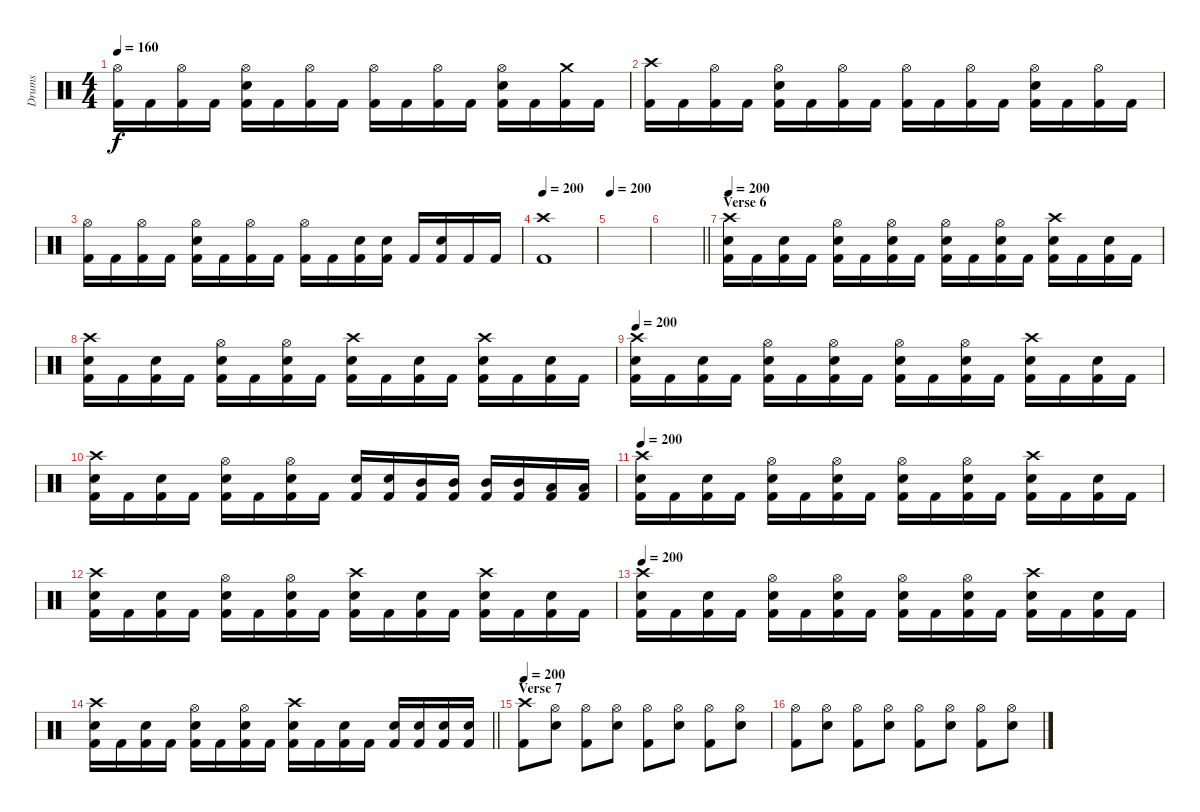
\track ("Drums" "Drums") {instrument percussion}
\staff {score}
\articulation defaults
\ts (4 4)
\tempo 160
\clef neutral
\ks c
("Hi-Hat (open)" "Kick (hit) 2").16{dy f} "Kick (hit) 2".16 ("Hi-Hat (open)" "Kick (hit) 2").16 "Kick (hit) 2".16 ("Hi-Hat (open)" "Electric Snare (hit)" "Kick (hit) 2").16 "Kick (hit) 2".16 ("Hi-Hat (open)" "Kick (hit) 2").16 "Kick (hit) 2".16 ("Hi-Hat (open)" "Kick (hit) 2").16 "Kick (hit) 2".16 ("Hi-Hat (open)" "Kick (hit) 2").16 "Kick (hit) 2".16 ("Hi-Hat (open)" "Electric Snare (hit)" "Kick (hit) 2").16 "Kick (hit) 2".16 ("Crash medium (hit)" "Kick (hit) 2").16 "Kick (hit) 2".16 |
("Crash high (hit)" "Kick (hit) 2").16 "Kick (hit) 2".16 ("Hi-Hat (open)" "Kick (hit) 2").16 "Kick (hit) 2".16 ("Hi-Hat (open)" "Electric Snare (hit)" "Kick (hit) 2").16 "Kick (hit) 2".16 ("Hi-Hat (open)" "Kick (hit) 2").16 "Kick (hit) 2".16 ("Hi-Hat (open)" "Kick (hit) 2").16 "Kick (hit) 2".16 ("Hi-Hat (open)" "Kick (hit) 2").16 "Kick (hit) 2".16 ("Hi-Hat (open)" "Electric Snare (hit)" "Kick (hit) 2").16 "Kick (hit) 2".16 ("Hi-Hat (open)" "Kick (hit) 2").16 "Kick (hit) 2".16 |
("Hi-Hat (open)" "Kick (hit) 2").16 "Kick (hit) 2".16 ("Hi-Hat (open)" "Kick (hit) 2").16 "Kick (hit) 2".16 ("Hi-Hat (open)" "Electric Snare (hit)" "Kick (hit) 2").16 "Kick (hit) 2".16 ("Hi-Hat (open)" "Kick (hit) 2").16 "Kick (hit) 2".16 ("Hi-Hat (open)" "Kick (hit) 2").16 "Kick (hit) 2".16 ("Electric Snare (hit)" "Kick (hit) 2").16 ("Electric Snare (hit)" "Kick (hit) 2").16 "Kick (hit) 2".16 ("Electric Snare (hit)" "Kick (hit) 2").16 "Kick (hit) 2".16 "Kick (hit) 2".16 |
\tempo 200
("Crash high (hit)" "Kick (hit) 2").1 |
\tempo 200
|
\barLineRight lightlight
|
\section ("" "Verse 6")
\tempo 200
("Crash high (hit)" "Electric Snare (hit)" "Kick (hit) 2").16 "Kick (hit) 2".16 ("Electric Snare (hit)" "Kick (hit) 2").16 "Kick (hit) 2".16 ("Hi-Hat (open)" "Electric Snare (hit)" "Kick (hit) 2").16 "Kick (hit) 2".16 ("Hi-Hat (open)" "Electric Snare (hit)" "Kick (hit) 2").16 "Kick (hit) 2".16 ("Hi-Hat (open)" "Electric Snare (hit)" "Kick (hit) 2").16 "Kick (hit) 2".16 ("Hi-Hat (open)" "Electric Snare (hit)" "Kick (hit) 2").16 "Kick (hit) 2".16 ("Crash high (hit)" "Electric Snare (hit)" "Kick (hit) 2").16 "Kick (hit) 2".16 ("Electric Snare (hit)" "Kick (hit) 2").16 "Kick (hit) 2".16 |
("Crash high (hit)" "Electric Snare (hit)" "Kick (hit) 2").16 "Kick (hit) 2".16 ("Electric Snare (hit)" "Kick (hit) 2").16 "Kick (hit) 2".16 ("Hi-Hat (open)" "Electric Snare (hit)" "Kick (hit) 2").16 "Kick (hit) 2".16 ("Hi-Hat (open)" "Electric Snare (hit)" "Kick (hit) 2").16 "Kick (hit) 2".16 ("Crash high (hit)" "Electric Snare (hit)" "Kick (hit) 2").16 "Kick (hit) 2".16 ("Electric Snare (hit)" "Kick (hit) 2").16 "Kick (hit) 2".16 ("Crash high (hit)" "Electric Snare (hit)" "Kick (hit) 2").16 "Kick (hit) 2".16 ("Electric Snare (hit)" "Kick (hit) 2").16 "Kick (hit) 2".16 |
\tempo 190
\tempo 200
("Crash high (hit)" "Electric Snare (hit)" "Kick (hit) 2").16 "Kick (hit) 2".16 ("Electric Snare (hit)" "Kick (hit) 2").16 "Kick (hit) 2".16 ("Hi-Hat (open)" "Electric Snare (hit)" "Kick (hit) 2").16 "Kick (hit) 2".16 ("Hi-Hat (open)" "Electric Snare (hit)" "Kick (hit) 2").16 "Kick (hit) 2".16 ("Hi-Hat (open)" "Electric Snare (hit)" "Kick (hit) 2").16 "Kick (hit) 2".16 ("Hi-Hat (open)" "Electric Snare (hit)" "Kick (hit) 2").16 "Kick (hit) 2".16 ("Crash high (hit)" "Electric Snare (hit)" "Kick (hit) 2").16 "Kick (hit) 2".16 ("Electric Snare (hit)" "Kick (hit) 2").16 "Kick (hit) 2".16 |
("Crash high (hit)" "Electric Snare (hit)" "Kick (hit) 2").16 "Kick (hit) 2".16 ("Electric Snare (hit)" "Kick (hit) 2").16 "Kick (hit) 2".16 ("Hi-Hat (open)" "Electric Snare (hit)" "Kick (hit) 2").16 "Kick (hit) 2".16 ("Hi-Hat (open)" "Electric Snare (hit)" "Kick (hit) 2").16 "Kick (hit) 2".16 ("Electric Snare (hit)" "Kick (hit) 2").16 ("Electric Snare (hit)" "Kick (hit) 2").16 ("Mid Tom (hit)" "Kick (hit) 2").16 ("Mid Tom (hit)" "Kick (hit) 2").16 ("Mid Tom (hit)" "Kick (hit) 2").16 ("Mid Tom (hit)" "Kick (hit) 2").16 ("Low Tom (hit)" "Kick (hit) 2").16 ("Low Tom (hit)" "Kick (hit) 2").16 |
\tempo 200
("Crash high (hit)" "Electric Snare (hit)" "Kick (hit) 2").16 "Kick (hit) 2".16 ("Electric Snare (hit)" "Kick (hit) 2").16 "Kick (hit) 2".16 ("Hi-Hat (open)" "Electric Snare (hit)" "Kick (hit) 2").16 "Kick (hit) 2".16 ("Hi-Hat (open)" "Electric Snare (hit)" "Kick (hit) 2").16 "Kick (hit) 2".16 ("Hi-Hat (open)" "Electric Snare (hit)" "Kick (hit) 2").16 "Kick (hit) 2".16 ("Hi-Hat (open)" "Electric Snare (hit)" "Kick (hit) 2").16 "Kick (hit) 2".16 ("Crash high (hit)" "Electric Snare (hit)" "Kick (hit) 2").16 "Kick (hit) 2".16 ("Electric Snare (hit)" "Kick (hit) 2").16 "Kick (hit) 2".16 |
("Crash high (hit)" "Electric Snare (hit)" "Kick (hit) 2").16 "Kick (hit) 2".16 ("Electric Snare (hit)" "Kick (hit) 2").16 "Kick (hit) 2".16 ("Hi-Hat (open)" "Electric Snare (hit)" "Kick (hit) 2").16 "Kick (hit) 2".16 ("Hi-Hat (open)" "Electric Snare (hit)" "Kick (hit) 2").16 "Kick (hit) 2".16 ("Crash high (hit)" "Electric Snare (hit)" "Kick (hit) 2").16 "Kick (hit) 2".16 ("Electric Snare (hit)" "Kick (hit) 2").16 "Kick (hit) 2".16 ("Crash high (hit)" "Electric Snare (hit)" "Kick (hit) 2").16 "Kick (hit) 2".16 ("Electric Snare (hit)" "Kick (hit) 2").16 "Kick (hit) 2".16 |
\tempo 190
\tempo 200
("Crash high (hit)" "Electric Snare (hit)" "Kick (hit) 2").16 "Kick (hit) 2".16 ("Electric Snare (hit)" "Kick (hit) 2").16 "Kick (hit) 2".16 ("Hi-Hat (open)" "Electric Snare (hit)" "Kick (hit) 2").16 "Kick (hit) 2".16 ("Hi-Hat (open)" "Electric Snare (hit)" "Kick (hit) 2").16 "Kick (hit) 2".16 ("Hi-Hat (open)" "Electric Snare (hit)" "Kick (hit) 2").16 "Kick (hit) 2".16 ("Hi-Hat (open)" "Electric Snare (hit)" "Kick (hit) 2").16 "Kick (hit) 2".16 ("Crash high (hit)" "Electric Snare (hit)" "Kick (hit) 2").16 "Kick (hit) 2".16 ("Electric Snare (hit)" "Kick (hit) 2").16 "Kick (hit) 2".16 |
\barLineRight lightlight
("Crash high (hit)" "Electric Snare (hit)" "Kick (hit) 2").16 "Kick (hit) 2".16 ("Electric Snare (hit)" "Kick (hit) 2").16 "Kick (hit) 2".16 ("Hi-Hat (open)" "Electric Snare (hit)" "Kick (hit) 2").16 "Kick (hit) 2".16 ("Hi-Hat (open)" "Electric Snare (hit)" "Kick (hit) 2").16 "Kick (hit) 2".16 ("Crash high (hit)" "Electric Snare (hit)" "Kick (hit) 2").16 "Kick (hit) 2".16 ("Electric Snare (hit)" "Kick (hit) 2").16 "Kick (hit) 2".16 ("Electric Snare (hit)" "Kick (hit) 2").16 ("Electric Snare (hit)" "Kick (hit) 2").16 ("Electric Snare (hit)" "Kick (hit) 2").16 ("Electric Snare (hit)" "Kick (hit) 2").16 |
\section ("" "Verse 7")
\tempo 200
("Crash high (hit)" "Kick (hit) 2").8 ("Hi-Hat (open)" "Electric Snare (hit)").8 ("Hi-Hat (open)" "Kick (hit) 2").8 ("Hi-Hat (open)" "Electric Snare (hit)").8 ("Hi-Hat (open)" "Kick (hit) 2").8 ("Hi-Hat (open)" "Electric Snare (hit)").8 ("Hi-Hat (open)" "Kick (hit) 2").8 ("Hi-Hat (open)" "Electric Snare (hit)").8 |
("Hi-Hat (open)" "Kick (hit) 2").8 ("Hi-Hat (open)" "Electric Snare (hit)").8 ("Hi-Hat (open)" "Kick (hit) 2").8 ("Hi-Hat (open)" "Electric Snare (hit)").8 ("Hi-Hat (open)" "Kick (hit) 2").8 ("Hi-Hat (open)" "Electric Snare (hit)").8 ("Hi-Hat (open)" "Kick (hit) 2").8 ("Hi-Hat (open)" "Electric Snare (hit)").8
